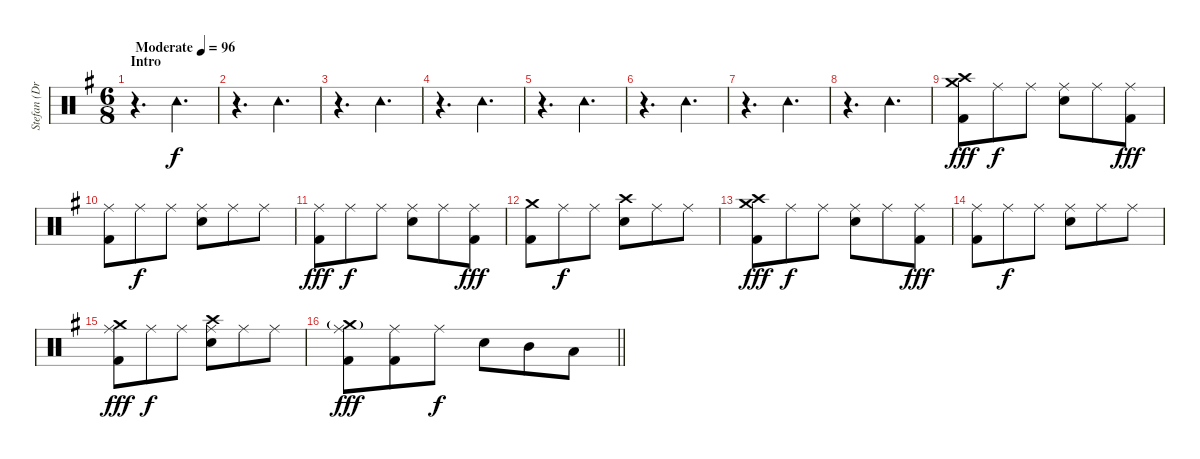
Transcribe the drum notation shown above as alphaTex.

\track ("Stefan (Drums)" "Stefan (Dr") {instrument percussion}
\staff {score}
\articulation defaults
\ts (6 8)
\section ("" "Intro")
\tempo (96 "Moderate")
\clef neutral
\ks g
r.4{d dy f} "Tambourine (hit)".4{d} |
r.4{d} "Tambourine (hit)".4{d} |
r.4{d} "Tambourine (hit)".4{d} |
r.4{d} "Tambourine (hit)".4{d} |
r.4{d} "Tambourine (hit)".4{d} |
r.4{d} "Tambourine (hit)".4{d} |
r.4{d} "Tambourine (hit)".4{d} |
r.4{d} "Tambourine (hit)".4{d} |
("Crash medium (hit)" "Crash high (hit)" "Kick (hit) 2").8{dy fff} "Ride (middle)".8{dy f} "Ride (middle)".8 ("Ride (middle)" "Snare (hit) 2").8 "Ride (middle)".8 ("Ride (middle)" "Kick (hit) 2").8{dy fff} |
("Ride (middle)" "Kick (hit) 2").8 "Ride (middle)".8{dy f} "Ride (middle)".8 ("Ride (middle)" "Snare (hit) 2").8 "Ride (middle)".8 "Ride (middle)".8 |
("Ride (middle)" "Kick (hit) 2").8{dy fff} "Ride (middle)".8{dy f} "Ride (middle)".8 ("Ride (middle)" "Snare (hit) 2").8 "Ride (middle)".8 ("Ride (middle)" "Kick (hit) 2").8{dy fff} |
("Crash medium (hit)" "Kick (hit) 2").8 "Ride (middle)".8{dy f} "Ride (middle)".8 ("Crash high (hit)" "Snare (hit) 2").8 "Ride (middle)".8 "Ride (middle)".8 |
("Crash medium (hit)" "Crash high (hit)" "Kick (hit) 2").8{dy fff} "Ride (middle)".8{dy f} "Ride (middle)".8 ("Ride (middle)" "Snare (hit) 2").8 "Ride (middle)".8 ("Ride (middle)" "Kick (hit) 2").8{dy fff} |
("Ride (middle)" "Kick (hit) 2").8 "Ride (middle)".8{dy f} "Ride (middle)".8 ("Ride (middle)" "Snare (hit) 2").8 "Ride (middle)".8 "Ride (middle)".8 |
("Ride (middle)" "Crash medium (hit)" "Kick (hit) 2").8{dy fff} "Ride (middle)".8{dy f} "Ride (middle)".8 ("Ride (middle)" "Crash high (hit)" "Snare (hit) 2").8 "Ride (middle)".8 "Ride (middle)".8 |
\barLineRight lightlight
("Ride (middle)" "Crash medium (hit)"{g} "Kick (hit) 2").8{dy fff} ("Ride (middle)" "Kick (hit) 2").8 "Ride (middle)".8{dy f} "Snare (hit) 2".8 "Mid Tom (hit)".8 "Low Tom (hit)".8
